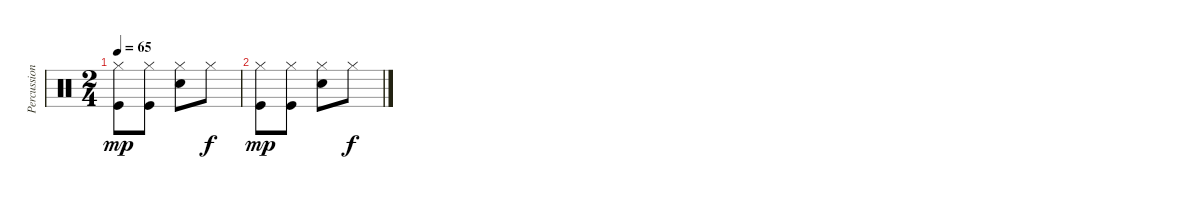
\track ("Percussions" "Percussion") {instrument percussion}
\staff {score}
\articulation defaults
\ts (2 4)
\tempo 65
\clef neutral
\ks c
("Hi-Hat (closed)" "Kick (hit)").8{dy mp} ("Hi-Hat (closed)" "Kick (hit)").8 ("Hi-Hat (closed)" "Electric Snare (hit)").8 "Hi-Hat (closed)".8{dy f} |
("Hi-Hat (closed)" "Kick (hit)").8{dy mp} ("Hi-Hat (closed)" "Kick (hit)").8 ("Hi-Hat (closed)" "Electric Snare (hit)").8 "Hi-Hat (closed)".8{dy f}
